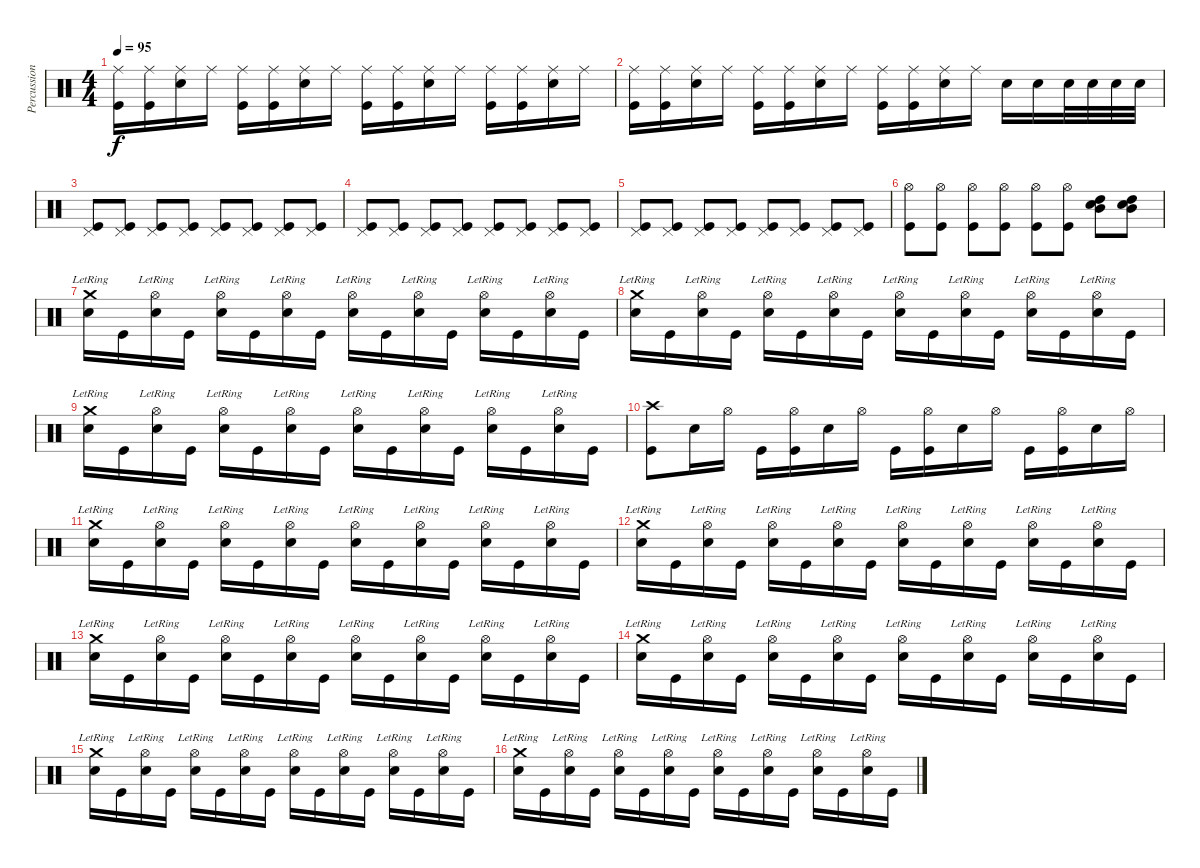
\track ("Percussion" "Percussion") {instrument percussion}
\staff {score}
\articulation defaults
\ts (4 4)
\tempo 95
\clef neutral
\ks c
("Ride (middle)" "Kick (hit)").16{dy f} ("Ride (middle)" "Kick (hit)").16 ("Ride (middle)" "Snare (hit) 2").16 "Ride (middle)".16 ("Ride (middle)" "Kick (hit)").16 ("Ride (middle)" "Kick (hit)").16 ("Ride (middle)" "Snare (hit) 2").16 "Ride (middle)".16 ("Ride (middle)" "Kick (hit)").16 ("Ride (middle)" "Kick (hit)").16 ("Ride (middle)" "Snare (hit) 2").16 "Ride (middle)".16 ("Ride (middle)" "Kick (hit)").16 ("Ride (middle)" "Kick (hit)").16 ("Ride (middle)" "Snare (hit) 2").16 "Ride (middle)".16 |
("Ride (middle)" "Kick (hit)").16 ("Ride (middle)" "Kick (hit)").16 ("Ride (middle)" "Snare (hit) 2").16 "Ride (middle)".16 ("Ride (middle)" "Kick (hit)").16 ("Ride (middle)" "Kick (hit)").16 ("Ride (middle)" "Snare (hit) 2").16 "Ride (middle)".16 ("Ride (middle)" "Kick (hit)").16 ("Ride (middle)" "Kick (hit)").16 ("Ride (middle)" "Snare (hit) 2").16 "Ride (middle)".16 "Snare (hit) 2".16 "Snare (hit) 2".16 "Snare (hit) 2".32 "Snare (hit) 2".32 "Snare (hit) 2".32 "Snare (hit) 2".32 |
("Pedal Hi-Hat (hit)" "Kick (hit)").8 ("Pedal Hi-Hat (hit)" "Kick (hit)").8 ("Pedal Hi-Hat (hit)" "Kick (hit)").8 ("Pedal Hi-Hat (hit)" "Kick (hit)").8 ("Pedal Hi-Hat (hit)" "Kick (hit)").8 ("Pedal Hi-Hat (hit)" "Kick (hit)").8 ("Pedal Hi-Hat (hit)" "Kick (hit)").8 ("Pedal Hi-Hat (hit)" "Kick (hit)").8 |
("Pedal Hi-Hat (hit)" "Kick (hit)").8 ("Pedal Hi-Hat (hit)" "Kick (hit)").8 ("Pedal Hi-Hat (hit)" "Kick (hit)").8 ("Pedal Hi-Hat (hit)" "Kick (hit)").8 ("Pedal Hi-Hat (hit)" "Kick (hit)").8 ("Pedal Hi-Hat (hit)" "Kick (hit)").8 ("Pedal Hi-Hat (hit)" "Kick (hit)").8 ("Pedal Hi-Hat (hit)" "Kick (hit)").8 |
("Pedal Hi-Hat (hit)" "Kick (hit)").8 ("Pedal Hi-Hat (hit)" "Kick (hit)").8 ("Pedal Hi-Hat (hit)" "Kick (hit)").8 ("Pedal Hi-Hat (hit)" "Kick (hit)").8 ("Pedal Hi-Hat (hit)" "Kick (hit)").8 ("Pedal Hi-Hat (hit)" "Kick (hit)").8 ("Pedal Hi-Hat (hit)" "Kick (hit)").8 ("Pedal Hi-Hat (hit)" "Kick (hit)").8 |
("Hi-Hat (open)" "Kick (hit)").8 ("Hi-Hat (open)" "Kick (hit)").8 ("Hi-Hat (open)" "Kick (hit)").8 ("Hi-Hat (open)" "Kick (hit)").8 ("Hi-Hat (open)" "Kick (hit)").8 ("Hi-Hat (open)" "Kick (hit)").8 ("High Tom (hit)" "Mid Tom (hit)" "Snare (hit) 2").8 ("High Tom (hit)" "Mid Tom (hit)" "Snare (hit) 2").8 |
("Crash medium (hit)"{lr} "Snare (hit) 2").16 "Kick (hit)".16 ("Hi-Hat (open)"{lr} "Snare (hit) 2").16 "Kick (hit)".16 ("Hi-Hat (open)"{lr} "Snare (hit) 2").16 "Kick (hit)".16 ("Hi-Hat (open)"{lr} "Snare (hit) 2").16 "Kick (hit)".16 ("Hi-Hat (open)"{lr} "Snare (hit) 2").16 "Kick (hit)".16 ("Hi-Hat (open)"{lr} "Snare (hit) 2").16 "Kick (hit)".16 ("Hi-Hat (open)"{lr} "Snare (hit) 2").16 "Kick (hit)".16 ("Hi-Hat (open)"{lr} "Snare (hit) 2").16 "Kick (hit)".16 |
("Crash medium (hit)"{lr} "Snare (hit) 2").16 "Kick (hit)".16 ("Hi-Hat (open)"{lr} "Snare (hit) 2").16 "Kick (hit)".16 ("Hi-Hat (open)"{lr} "Snare (hit) 2").16 "Kick (hit)".16 ("Hi-Hat (open)"{lr} "Snare (hit) 2").16 "Kick (hit)".16 ("Hi-Hat (open)"{lr} "Snare (hit) 2").16 "Kick (hit)".16 ("Hi-Hat (open)"{lr} "Snare (hit) 2").16 "Kick (hit)".16 ("Hi-Hat (open)"{lr} "Snare (hit) 2").16 "Kick (hit)".16 ("Hi-Hat (open)"{lr} "Snare (hit) 2").16 "Kick (hit)".16 |
("Crash medium (hit)"{lr} "Snare (hit) 2").16 "Kick (hit)".16 ("Hi-Hat (open)"{lr} "Snare (hit) 2").16 "Kick (hit)".16 ("Hi-Hat (open)"{lr} "Snare (hit) 2").16 "Kick (hit)".16 ("Hi-Hat (open)"{lr} "Snare (hit) 2").16 "Kick (hit)".16 ("Hi-Hat (open)"{lr} "Snare (hit) 2").16 "Kick (hit)".16 ("Hi-Hat (open)"{lr} "Snare (hit) 2").16 "Kick (hit)".16 ("Hi-Hat (open)"{lr} "Snare (hit) 2").16 "Kick (hit)".16 ("Hi-Hat (open)"{lr} "Snare (hit) 2").16 "Kick (hit)".16 |
("Crash high (hit)" "Kick (hit)").8 "Snare (hit) 2".16 "Hi-Hat (open)".16 "Kick (hit)".16 ("Hi-Hat (open)" "Kick (hit)").16 "Snare (hit) 2".16 "Hi-Hat (open)".16 "Kick (hit)".16 ("Hi-Hat (open)" "Kick (hit)").16 "Snare (hit) 2".16 "Hi-Hat (open)".16 "Kick (hit)".16 ("Hi-Hat (open)" "Kick (hit)").16 "Snare (hit) 2".16 "Hi-Hat (open)".16 |
("Crash medium (hit)"{lr} "Snare (hit) 2").16 "Kick (hit)".16 ("Hi-Hat (open)"{lr} "Snare (hit) 2").16 "Kick (hit)".16 ("Hi-Hat (open)"{lr} "Snare (hit) 2").16 "Kick (hit)".16 ("Hi-Hat (open)"{lr} "Snare (hit) 2").16 "Kick (hit)".16 ("Hi-Hat (open)"{lr} "Snare (hit) 2").16 "Kick (hit)".16 ("Hi-Hat (open)"{lr} "Snare (hit) 2").16 "Kick (hit)".16 ("Hi-Hat (open)"{lr} "Snare (hit) 2").16 "Kick (hit)".16 ("Hi-Hat (open)"{lr} "Snare (hit) 2").16 "Kick (hit)".16 |
("Crash medium (hit)"{lr} "Snare (hit) 2").16 "Kick (hit)".16 ("Hi-Hat (open)"{lr} "Snare (hit) 2").16 "Kick (hit)".16 ("Hi-Hat (open)"{lr} "Snare (hit) 2").16 "Kick (hit)".16 ("Hi-Hat (open)"{lr} "Snare (hit) 2").16 "Kick (hit)".16 ("Hi-Hat (open)"{lr} "Snare (hit) 2").16 "Kick (hit)".16 ("Hi-Hat (open)"{lr} "Snare (hit) 2").16 "Kick (hit)".16 ("Hi-Hat (open)"{lr} "Snare (hit) 2").16 "Kick (hit)".16 ("Hi-Hat (open)"{lr} "Snare (hit) 2").16 "Kick (hit)".16 |
("Crash medium (hit)"{lr} "Snare (hit) 2").16 "Kick (hit)".16 ("Hi-Hat (open)"{lr} "Snare (hit) 2").16 "Kick (hit)".16 ("Hi-Hat (open)"{lr} "Snare (hit) 2").16 "Kick (hit)".16 ("Hi-Hat (open)"{lr} "Snare (hit) 2").16 "Kick (hit)".16 ("Hi-Hat (open)"{lr} "Snare (hit) 2").16 "Kick (hit)".16 ("Hi-Hat (open)"{lr} "Snare (hit) 2").16 "Kick (hit)".16 ("Hi-Hat (open)"{lr} "Snare (hit) 2").16 "Kick (hit)".16 ("Hi-Hat (open)"{lr} "Snare (hit) 2").16 "Kick (hit)".16 |
("Crash medium (hit)"{lr} "Snare (hit) 2").16 "Kick (hit)".16 ("Hi-Hat (open)"{lr} "Snare (hit) 2").16 "Kick (hit)".16 ("Hi-Hat (open)"{lr} "Snare (hit) 2").16 "Kick (hit)".16 ("Hi-Hat (open)"{lr} "Snare (hit) 2").16 "Kick (hit)".16 ("Hi-Hat (open)"{lr} "Snare (hit) 2").16 "Kick (hit)".16 ("Hi-Hat (open)"{lr} "Snare (hit) 2").16 "Kick (hit)".16 ("Hi-Hat (open)"{lr} "Snare (hit) 2").16 "Kick (hit)".16 ("Hi-Hat (open)"{lr} "Snare (hit) 2").16 "Kick (hit)".16 |
("Crash medium (hit)"{lr} "Snare (hit) 2").16 "Kick (hit)".16 ("Hi-Hat (open)"{lr} "Snare (hit) 2").16 "Kick (hit)".16 ("Hi-Hat (open)"{lr} "Snare (hit) 2").16 "Kick (hit)".16 ("Hi-Hat (open)"{lr} "Snare (hit) 2").16 "Kick (hit)".16 ("Hi-Hat (open)"{lr} "Snare (hit) 2").16 "Kick (hit)".16 ("Hi-Hat (open)"{lr} "Snare (hit) 2").16 "Kick (hit)".16 ("Hi-Hat (open)"{lr} "Snare (hit) 2").16 "Kick (hit)".16 ("Hi-Hat (open)"{lr} "Snare (hit) 2").16 "Kick (hit)".16 |
("Crash medium (hit)"{lr} "Snare (hit) 2").16 "Kick (hit)".16 ("Hi-Hat (open)"{lr} "Snare (hit) 2").16 "Kick (hit)".16 ("Hi-Hat (open)"{lr} "Snare (hit) 2").16 "Kick (hit)".16 ("Hi-Hat (open)"{lr} "Snare (hit) 2").16 "Kick (hit)".16 ("Hi-Hat (open)"{lr} "Snare (hit) 2").16 "Kick (hit)".16 ("Hi-Hat (open)"{lr} "Snare (hit) 2").16 "Kick (hit)".16 ("Hi-Hat (open)"{lr} "Snare (hit) 2").16 "Kick (hit)".16 ("Hi-Hat (open)"{lr} "Snare (hit) 2").16 "Kick (hit)".16
